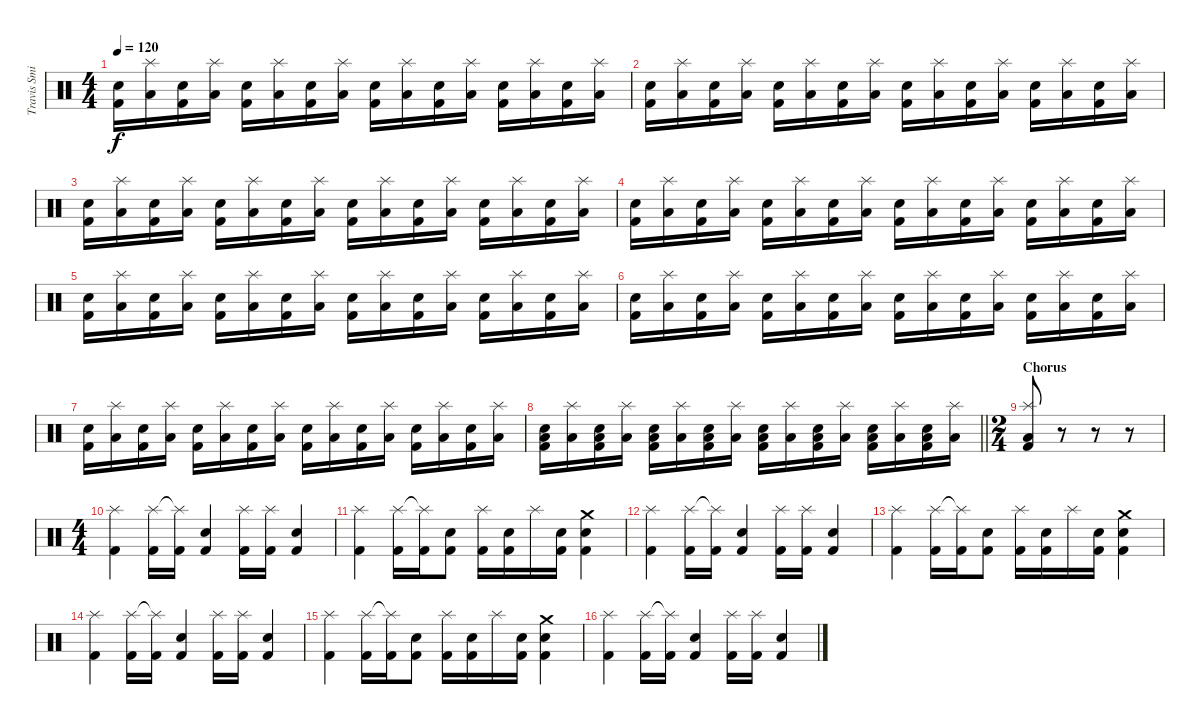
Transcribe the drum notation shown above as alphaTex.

\track ("Travis Smith" "Travis Smi") {instrument percussion}
\staff {score}
\articulation defaults
\ts (4 4)
\tempo 120
\clef neutral
\ks c
("Snare (hit) 2" "Kick (hit) 2").16{dy f} ("Splash (hit)" "Low Floor Tom (hit)").16 ("Snare (hit) 2" "Kick (hit) 2").16 ("Splash (hit)" "Low Floor Tom (hit)").16 ("Snare (hit) 2" "Kick (hit) 2").16 ("Splash (hit)" "Low Floor Tom (hit)").16 ("Snare (hit) 2" "Kick (hit) 2").16 ("Splash (hit)" "Low Floor Tom (hit)").16 ("Snare (hit) 2" "Kick (hit) 2").16 ("Splash (hit)" "Low Floor Tom (hit)").16 ("Snare (hit) 2" "Kick (hit) 2").16 ("Splash (hit)" "Low Floor Tom (hit)").16 ("Snare (hit) 2" "Kick (hit) 2").16 ("Splash (hit)" "Low Floor Tom (hit)").16 ("Snare (hit) 2" "Kick (hit) 2").16 ("Splash (hit)" "Low Floor Tom (hit)").16 |
("Snare (hit) 2" "Kick (hit) 2").16 ("Splash (hit)" "Low Floor Tom (hit)").16 ("Snare (hit) 2" "Kick (hit) 2").16 ("Splash (hit)" "Low Floor Tom (hit)").16 ("Snare (hit) 2" "Kick (hit) 2").16 ("Splash (hit)" "Low Floor Tom (hit)").16 ("Snare (hit) 2" "Kick (hit) 2").16 ("Splash (hit)" "Low Floor Tom (hit)").16 ("Snare (hit) 2" "Kick (hit) 2").16 ("Splash (hit)" "Low Floor Tom (hit)").16 ("Snare (hit) 2" "Kick (hit) 2").16 ("Splash (hit)" "Low Floor Tom (hit)").16 ("Snare (hit) 2" "Kick (hit) 2").16 ("Splash (hit)" "Low Floor Tom (hit)").16 ("Snare (hit) 2" "Kick (hit) 2").16 ("Splash (hit)" "Low Floor Tom (hit)").16 |
("Snare (hit) 2" "Kick (hit) 2").16 ("Splash (hit)" "Low Floor Tom (hit)").16 ("Snare (hit) 2" "Kick (hit) 2").16 ("Splash (hit)" "Low Floor Tom (hit)").16 ("Snare (hit) 2" "Kick (hit) 2").16 ("Splash (hit)" "Low Floor Tom (hit)").16 ("Snare (hit) 2" "Kick (hit) 2").16 ("Splash (hit)" "Low Floor Tom (hit)").16 ("Snare (hit) 2" "Kick (hit) 2").16 ("Splash (hit)" "Low Floor Tom (hit)").16 ("Snare (hit) 2" "Kick (hit) 2").16 ("Splash (hit)" "Low Floor Tom (hit)").16 ("Snare (hit) 2" "Kick (hit) 2").16 ("Splash (hit)" "Low Floor Tom (hit)").16 ("Snare (hit) 2" "Kick (hit) 2").16 ("Splash (hit)" "Low Floor Tom (hit)").16 |
("Snare (hit) 2" "Kick (hit) 2").16 ("Splash (hit)" "Low Floor Tom (hit)").16 ("Snare (hit) 2" "Kick (hit) 2").16 ("Splash (hit)" "Low Floor Tom (hit)").16 ("Snare (hit) 2" "Kick (hit) 2").16 ("Splash (hit)" "Low Floor Tom (hit)").16 ("Snare (hit) 2" "Kick (hit) 2").16 ("Splash (hit)" "Low Floor Tom (hit)").16 ("Snare (hit) 2" "Kick (hit) 2").16 ("Splash (hit)" "Low Floor Tom (hit)").16 ("Snare (hit) 2" "Kick (hit) 2").16 ("Splash (hit)" "Low Floor Tom (hit)").16 ("Snare (hit) 2" "Kick (hit) 2").16 ("Splash (hit)" "Low Floor Tom (hit)").16 ("Snare (hit) 2" "Kick (hit) 2").16 ("Splash (hit)" "Low Floor Tom (hit)").16 |
("Snare (hit) 2" "Kick (hit) 2").16 ("Splash (hit)" "Low Floor Tom (hit)").16 ("Snare (hit) 2" "Kick (hit) 2").16 ("Splash (hit)" "Low Floor Tom (hit)").16 ("Snare (hit) 2" "Kick (hit) 2").16 ("Splash (hit)" "Low Floor Tom (hit)").16 ("Snare (hit) 2" "Kick (hit) 2").16 ("Splash (hit)" "Low Floor Tom (hit)").16 ("Snare (hit) 2" "Kick (hit) 2").16 ("Splash (hit)" "Low Floor Tom (hit)").16 ("Snare (hit) 2" "Kick (hit) 2").16 ("Splash (hit)" "Low Floor Tom (hit)").16 ("Snare (hit) 2" "Kick (hit) 2").16 ("Splash (hit)" "Low Floor Tom (hit)").16 ("Snare (hit) 2" "Kick (hit) 2").16 ("Splash (hit)" "Low Floor Tom (hit)").16 |
("Snare (hit) 2" "Kick (hit) 2").16 ("Splash (hit)" "Low Floor Tom (hit)").16 ("Snare (hit) 2" "Kick (hit) 2").16 ("Splash (hit)" "Low Floor Tom (hit)").16 ("Snare (hit) 2" "Kick (hit) 2").16 ("Splash (hit)" "Low Floor Tom (hit)").16 ("Snare (hit) 2" "Kick (hit) 2").16 ("Splash (hit)" "Low Floor Tom (hit)").16 ("Snare (hit) 2" "Kick (hit) 2").16 ("Splash (hit)" "Low Floor Tom (hit)").16 ("Snare (hit) 2" "Kick (hit) 2").16 ("Splash (hit)" "Low Floor Tom (hit)").16 ("Snare (hit) 2" "Kick (hit) 2").16 ("Splash (hit)" "Low Floor Tom (hit)").16 ("Snare (hit) 2" "Kick (hit) 2").16 ("Splash (hit)" "Low Floor Tom (hit)").16 |
("Snare (hit) 2" "Kick (hit) 2").16 ("Splash (hit)" "Low Floor Tom (hit)").16 ("Snare (hit) 2" "Kick (hit) 2").16 ("Splash (hit)" "Low Floor Tom (hit)").16 ("Snare (hit) 2" "Kick (hit) 2").16 ("Splash (hit)" "Low Floor Tom (hit)").16 ("Snare (hit) 2" "Kick (hit) 2").16 ("Splash (hit)" "Low Floor Tom (hit)").16 ("Snare (hit) 2" "Kick (hit) 2").16 ("Splash (hit)" "Low Floor Tom (hit)").16 ("Snare (hit) 2" "Kick (hit) 2").16 ("Splash (hit)" "Low Floor Tom (hit)").16 ("Snare (hit) 2" "Kick (hit) 2").16 ("Splash (hit)" "Low Floor Tom (hit)").16 ("Snare (hit) 2" "Kick (hit) 2").16 ("Splash (hit)" "Low Floor Tom (hit)").16 |
\barLineRight lightlight
("Snare (hit) 2" "Low Tom (hit)" "Kick (hit) 2").16 ("Splash (hit)" "Low Tom (hit)").16 ("Snare (hit) 2" "Low Tom (hit)" "Kick (hit) 2").16 ("Splash (hit)" "Low Tom (hit)").16 ("Snare (hit) 2" "Low Tom (hit)" "Kick (hit) 2").16 ("Splash (hit)" "Low Tom (hit)").16 ("Snare (hit) 2" "Low Tom (hit)" "Kick (hit) 2").16 ("Splash (hit)" "Low Tom (hit)").16 ("Snare (hit) 2" "Low Tom (hit)" "Kick (hit) 2").16 ("Splash (hit)" "Low Tom (hit)").16 ("Snare (hit) 2" "Low Tom (hit)" "Kick (hit) 2").16 ("Splash (hit)" "Low Tom (hit)").16 ("Snare (hit) 2" "Low Tom (hit)" "Kick (hit) 2").16 ("Splash (hit)" "Low Tom (hit)").16 ("Snare (hit) 2" "Low Tom (hit)" "Kick (hit) 2").16 ("Splash (hit)" "Low Tom (hit)").16 |
\ts (2 4)
\section ("" "Chorus")
("Splash (hit)" "Low Floor Tom (hit)" "Kick (hit) 2").8 r.8 r.8 r.8 |
\ts (4 4)
("Splash (hit)" "Kick (hit) 2").4 ("Splash (hit)" "Kick (hit) 2").16 ("Splash (hit)"{t} "Kick (hit) 2").16 ("Snare (hit) 2" "Kick (hit) 2").4 ("Splash (hit)" "Kick (hit) 2").16 ("Splash (hit)" "Kick (hit) 2").16 ("Snare (hit) 2" "Kick (hit) 2").4 |
("Splash (hit)" "Kick (hit) 2").4 ("Splash (hit)" "Kick (hit) 2").16 ("Splash (hit)"{t} "Kick (hit) 2").16 ("Snare (hit) 2" "Kick (hit) 2").8 ("Splash (hit)" "Kick (hit) 2").16 ("Snare (hit) 2" "Kick (hit) 2").16 "Splash (hit)".16 ("Snare (hit) 2" "Kick (hit) 2").16 ("Crash medium (hit)" "Snare (hit) 2" "Kick (hit) 2").4 |
("Splash (hit)" "Kick (hit) 2").4 ("Splash (hit)" "Kick (hit) 2").16 ("Splash (hit)"{t} "Kick (hit) 2").16 ("Snare (hit) 2" "Kick (hit) 2").4 ("Splash (hit)" "Kick (hit) 2").16 ("Splash (hit)" "Kick (hit) 2").16 ("Snare (hit) 2" "Kick (hit) 2").4 |
("Splash (hit)" "Kick (hit) 2").4 ("Splash (hit)" "Kick (hit) 2").16 ("Splash (hit)"{t} "Kick (hit) 2").16 ("Snare (hit) 2" "Kick (hit) 2").8 ("Splash (hit)" "Kick (hit) 2").16 ("Snare (hit) 2" "Kick (hit) 2").16 "Splash (hit)".16 ("Snare (hit) 2" "Kick (hit) 2").16 ("Crash medium (hit)" "Snare (hit) 2" "Kick (hit) 2").4 |
("Splash (hit)" "Kick (hit) 2").4 ("Splash (hit)" "Kick (hit) 2").16 ("Splash (hit)"{t} "Kick (hit) 2").16 ("Snare (hit) 2" "Kick (hit) 2").4 ("Splash (hit)" "Kick (hit) 2").16 ("Splash (hit)" "Kick (hit) 2").16 ("Snare (hit) 2" "Kick (hit) 2").4 |
("Splash (hit)" "Kick (hit) 2").4 ("Splash (hit)" "Kick (hit) 2").16 ("Splash (hit)"{t} "Kick (hit) 2").16 ("Snare (hit) 2" "Kick (hit) 2").8 ("Splash (hit)" "Kick (hit) 2").16 ("Snare (hit) 2" "Kick (hit) 2").16 "Splash (hit)".16 ("Snare (hit) 2" "Kick (hit) 2").16 ("Crash medium (hit)" "Snare (hit) 2" "Kick (hit) 2").4 |
("Splash (hit)" "Kick (hit) 2").4 ("Splash (hit)" "Kick (hit) 2").16 ("Splash (hit)"{t} "Kick (hit) 2").16 ("Snare (hit) 2" "Kick (hit) 2").4 ("Splash (hit)" "Kick (hit) 2").16 ("Splash (hit)" "Kick (hit) 2").16 ("Snare (hit) 2" "Kick (hit) 2").4
